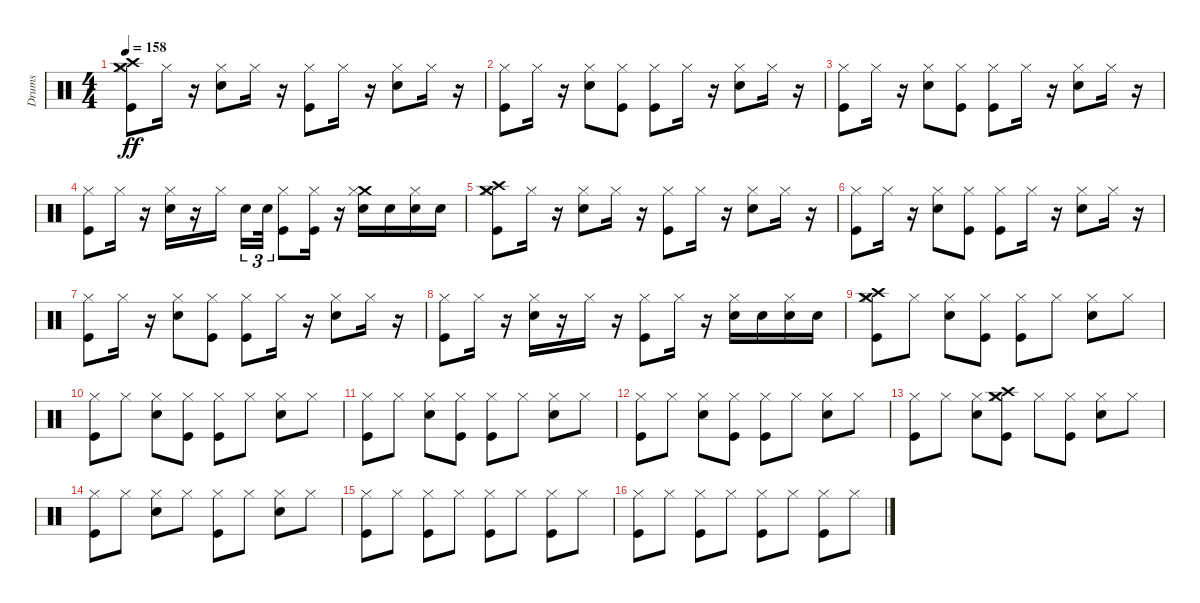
\track ("Drums" "Drums") {instrument percussion}
\staff {score}
\articulation defaults
\ts (4 4)
\tempo 158
\clef neutral
\ks c
("Hi-Hat (closed)" "Kick (hit)" "Crash medium (hit)" "Crash high (hit)").8{dy ff} "Hi-Hat (closed)".16 r.16 ("Hi-Hat (closed)" "Snare (hit) 2").8 "Hi-Hat (closed)".16 r.16 ("Hi-Hat (closed)" "Kick (hit)").8 "Hi-Hat (closed)".16 r.16 ("Hi-Hat (closed)" "Snare (hit) 2").8 "Hi-Hat (closed)".16 r.16 |
("Hi-Hat (closed)" "Kick (hit)").8 "Hi-Hat (closed)".16 r.16 ("Hi-Hat (closed)" "Snare (hit) 2").8 ("Hi-Hat (closed)" "Kick (hit)").8 ("Hi-Hat (closed)" "Kick (hit)").8 "Hi-Hat (closed)".16 r.16 ("Hi-Hat (closed)" "Snare (hit) 2").8 "Hi-Hat (closed)".16 r.16 |
("Hi-Hat (closed)" "Kick (hit)").8 "Hi-Hat (closed)".16 r.16 ("Hi-Hat (closed)" "Snare (hit) 2").8 ("Kick (hit)" "Hi-Hat (closed)").8 ("Kick (hit)" "Hi-Hat (closed)").8 "Hi-Hat (closed)".16 r.16 ("Hi-Hat (closed)" "Snare (hit) 2").8 "Hi-Hat (closed)".16 r.16 |
("Hi-Hat (closed)" "Kick (hit)").8 "Hi-Hat (closed)".16 r.16 ("Hi-Hat (closed)" "Snare (hit) 2").16 r.16 "Hi-Hat (closed)".16 "Snare (hit) 2".16{tu (3 2)} "Snare (hit) 2".32{tu (3 2)} ("Hi-Hat (closed)" "Kick (hit)").8 ("Hi-Hat (closed)" "Kick (hit)").16 r.16 ("Crash medium (hit)" "Snare (hit) 2" "Hi-Hat (closed)").16 "Snare (hit) 2".16 ("Snare (hit) 2" "Hi-Hat (closed)").16 "Snare (hit) 2".16 |
("Crash medium (hit)" "Hi-Hat (closed)" "Kick (hit)" "Crash high (hit)").8 "Hi-Hat (closed)".16 r.16 ("Snare (hit) 2" "Hi-Hat (closed)").8 "Hi-Hat (closed)".16 r.16 ("Hi-Hat (closed)" "Kick (hit)").8 "Hi-Hat (closed)".16 r.16 ("Snare (hit) 2" "Hi-Hat (closed)").8 "Hi-Hat (closed)".16 r.16 |
("Hi-Hat (closed)" "Kick (hit)").8 "Hi-Hat (closed)".16 r.16 ("Snare (hit) 2" "Hi-Hat (closed)").8 ("Kick (hit)" "Hi-Hat (closed)").8 ("Hi-Hat (closed)" "Kick (hit)").8 "Hi-Hat (closed)".16 r.16 ("Snare (hit) 2" "Hi-Hat (closed)").8 "Hi-Hat (closed)".16 r.16 |
("Hi-Hat (closed)" "Kick (hit)").8 "Hi-Hat (closed)".16 r.16 ("Snare (hit) 2" "Hi-Hat (closed)").8 ("Hi-Hat (closed)" "Kick (hit)").8 ("Kick (hit)" "Hi-Hat (closed)").8 "Hi-Hat (closed)".16 r.16 ("Hi-Hat (closed)" "Snare (hit) 2").8 "Hi-Hat (closed)".16 r.16 |
("Hi-Hat (closed)" "Kick (hit)").8 "Hi-Hat (closed)".16 r.16 ("Snare (hit) 2" "Hi-Hat (closed)").16 r.16 "Hi-Hat (closed)".16 r.16 ("Hi-Hat (closed)" "Kick (hit)").8 "Hi-Hat (closed)".16 r.16 ("Snare (hit) 2" "Hi-Hat (closed)").16 "Snare (hit) 2".16 ("Hi-Hat (closed)" "Snare (hit) 2").16 "Snare (hit) 2".16 |
("Crash medium (hit)" "Kick (hit)" "Hi-Hat (closed)" "Crash high (hit)").8 "Hi-Hat (closed)".8 ("Hi-Hat (closed)" "Snare (hit) 2").8 ("Kick (hit)" "Hi-Hat (closed)").8 ("Kick (hit)" "Hi-Hat (closed)").8 "Hi-Hat (closed)".8 ("Snare (hit) 2" "Hi-Hat (closed)").8 "Hi-Hat (closed)".8 |
("Kick (hit)" "Hi-Hat (closed)").8 "Hi-Hat (closed)".8 ("Snare (hit) 2" "Hi-Hat (closed)").8 ("Kick (hit)" "Hi-Hat (closed)").8 ("Kick (hit)" "Hi-Hat (closed)").8 "Hi-Hat (closed)".8 ("Snare (hit) 2" "Hi-Hat (closed)").8 "Hi-Hat (closed)".8 |
("Kick (hit)" "Hi-Hat (closed)").8 "Hi-Hat (closed)".8 ("Hi-Hat (closed)" "Snare (hit) 2").8 ("Hi-Hat (closed)" "Kick (hit)").8 ("Kick (hit)" "Hi-Hat (closed)").8 "Hi-Hat (closed)".8 ("Hi-Hat (closed)" "Snare (hit) 2").8 "Hi-Hat (closed)".8 |
("Kick (hit)" "Hi-Hat (closed)").8 "Hi-Hat (closed)".8 ("Snare (hit) 2" "Hi-Hat (closed)").8 ("Kick (hit)" "Hi-Hat (closed)").8 ("Hi-Hat (closed)" "Kick (hit)").8 "Hi-Hat (closed)".8 ("Hi-Hat (closed)" "Snare (hit) 2").8 "Hi-Hat (closed)".8 |
("Hi-Hat (closed)" "Kick (hit)").8 "Hi-Hat (closed)".8 ("Snare (hit) 2" "Hi-Hat (closed)").8 ("Crash high (hit)" "Hi-Hat (closed)" "Crash medium (hit)" "Kick (hit)").8 "Hi-Hat (closed)".8 ("Hi-Hat (closed)" "Kick (hit)").8 ("Hi-Hat (closed)" "Snare (hit) 2").8 "Hi-Hat (closed)".8 |
("Hi-Hat (closed)" "Kick (hit)").8 "Hi-Hat (closed)".8 ("Hi-Hat (closed)" "Snare (hit) 2").8 "Hi-Hat (closed)".8 ("Hi-Hat (closed)" "Kick (hit)").8 "Hi-Hat (closed)".8 ("Hi-Hat (closed)" "Snare (hit) 2").8 "Hi-Hat (closed)".8 |
("Hi-Hat (closed)" "Kick (hit)").8 "Hi-Hat (closed)".8 ("Kick (hit)" "Hi-Hat (closed)").8 "Hi-Hat (closed)".8 ("Kick (hit)" "Hi-Hat (closed)").8 "Hi-Hat (closed)".8 ("Hi-Hat (closed)" "Kick (hit)").8 "Hi-Hat (closed)".8 |
("Kick (hit)" "Hi-Hat (closed)").8 "Hi-Hat (closed)".8 ("Kick (hit)" "Hi-Hat (closed)").8 "Hi-Hat (closed)".8 ("Kick (hit)" "Hi-Hat (closed)").8 "Hi-Hat (closed)".8 ("Kick (hit)" "Hi-Hat (closed)").8 "Hi-Hat (closed)".8
